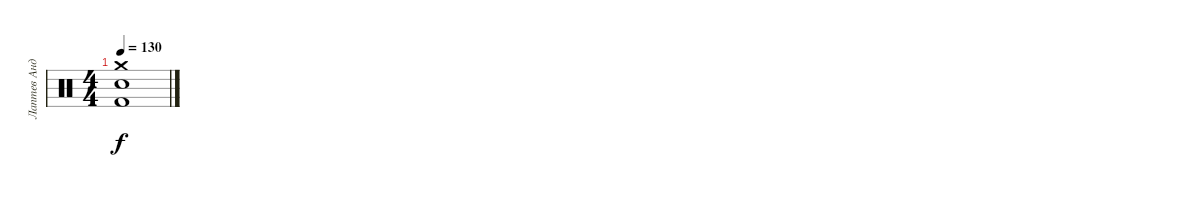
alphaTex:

\track ("Лаптев Андрей" "Лаптев Анд") {instrument percussion}
\staff {score}
\articulation defaults
\ts (4 4)
\tempo 130
\clef neutral
\ks c
("Crash medium (hit)" "Electric Snare (hit)" "Kick (hit) 2").1{dy f}
